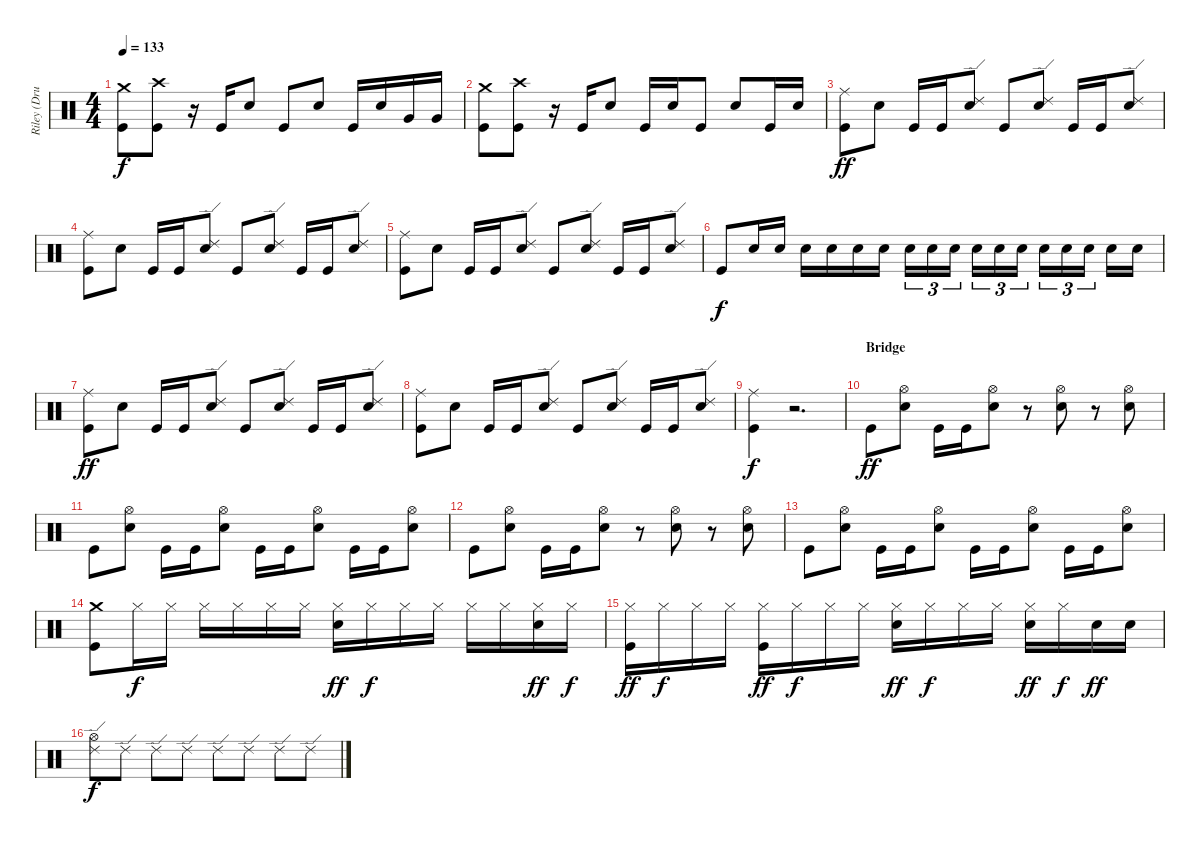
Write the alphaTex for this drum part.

\track ("Riley (Drums)" "Riley (Dru") {instrument percussion}
\staff {score}
\articulation defaults
\ts (4 4)
\tempo 133
\clef neutral
\ks c
("Crash medium (hit)" "Kick (hit)").8{dy f} ("Crash high (hit)" "Kick (hit)").8 r.16 "Kick (hit)".16 "Electric Snare (hit)".8 "Kick (hit)".8 "Electric Snare (hit)".8 "Kick (hit)".16 "Electric Snare (hit)".16 "Very Low Tom (hit)".16 "Very Low Tom (hit)".16 |
("Crash medium (hit)" "Kick (hit)").8 ("Crash high (hit)" "Kick (hit)").8 r.16 "Kick (hit)".16 "Electric Snare (hit)".8 "Kick (hit)".16 "Electric Snare (hit)".16 "Kick (hit)".8 "Electric Snare (hit)".8 "Kick (hit)".16 "Electric Snare (hit)".16 |
("Ride (middle)" "Kick (hit)").8{dy ff} "Electric Snare (hit)".8 "Kick (hit)".16 "Kick (hit)".16 ("Ride (edge) 2" "Electric Snare (hit)").8 "Kick (hit)".8 ("Ride (edge) 2" "Electric Snare (hit)").8 "Kick (hit)".16 "Kick (hit)".16 ("Ride (edge) 2" "Electric Snare (hit)").8 |
("Ride (middle)" "Kick (hit)").8 "Electric Snare (hit)".8 "Kick (hit)".16 "Kick (hit)".16 ("Ride (edge) 2" "Electric Snare (hit)").8 "Kick (hit)".8 ("Ride (edge) 2" "Electric Snare (hit)").8 "Kick (hit)".16 "Kick (hit)".16 ("Ride (edge) 2" "Electric Snare (hit)").8 |
("Ride (middle)" "Kick (hit)").8 "Electric Snare (hit)".8 "Kick (hit)".16 "Kick (hit)".16 ("Ride (edge) 2" "Electric Snare (hit)").8 "Kick (hit)".8 ("Ride (edge) 2" "Electric Snare (hit)").8 "Kick (hit)".16 "Kick (hit)".16 ("Ride (edge) 2" "Electric Snare (hit)").8 |
"Kick (hit)".8{dy f} "Electric Snare (hit)".16 "Electric Snare (hit)".16 "Electric Snare (hit)".16 "Electric Snare (hit)".16 "Electric Snare (hit)".16 "Electric Snare (hit)".16 "Electric Snare (hit)".16{tu (3 2)} "Electric Snare (hit)".16{tu (3 2)} "Electric Snare (hit)".16{tu (3 2)} "Electric Snare (hit)".16{tu (3 2)} "Electric Snare (hit)".16{tu (3 2)} "Electric Snare (hit)".16{tu (3 2)} "Electric Snare (hit)".16{tu (3 2)} "Electric Snare (hit)".16{tu (3 2)} "Electric Snare (hit)".16{tu (3 2)} "Electric Snare (hit)".16 "Electric Snare (hit)".16 |
("Ride (middle)" "Kick (hit)").8{dy ff} "Electric Snare (hit)".8 "Kick (hit)".16 "Kick (hit)".16 ("Ride (edge) 2" "Electric Snare (hit)").8 "Kick (hit)".8 ("Ride (edge) 2" "Electric Snare (hit)").8 "Kick (hit)".16 "Kick (hit)".16 ("Ride (edge) 2" "Electric Snare (hit)").8 |
("Ride (middle)" "Kick (hit)").8 "Electric Snare (hit)".8 "Kick (hit)".16 "Kick (hit)".16 ("Ride (edge) 2" "Electric Snare (hit)").8 "Kick (hit)".8 ("Ride (edge) 2" "Electric Snare (hit)").8 "Kick (hit)".16 "Kick (hit)".16 ("Ride (edge) 2" "Electric Snare (hit)").8 |
("Ride (middle)" "Kick (hit)").4{dy f} r.2{d} |
\section ("" "Bridge")
"Kick (hit)".8{dy ff} ("Hi-Hat (open)" "Electric Snare (hit)").8 "Kick (hit)".16 "Kick (hit)".16 ("Hi-Hat (open)" "Electric Snare (hit)").8 r.8 ("Hi-Hat (open)" "Electric Snare (hit)").8 r.8 ("Hi-Hat (open)" "Electric Snare (hit)").8 |
"Kick (hit)".8 ("Hi-Hat (open)" "Electric Snare (hit)").8 "Kick (hit)".16 "Kick (hit)".16 ("Hi-Hat (open)" "Electric Snare (hit)").8 "Kick (hit)".16 "Kick (hit)".16 ("Hi-Hat (open)" "Electric Snare (hit)").8 "Kick (hit)".16 "Kick (hit)".16 ("Hi-Hat (open)" "Electric Snare (hit)").8 |
"Kick (hit)".8 ("Hi-Hat (open)" "Electric Snare (hit)").8 "Kick (hit)".16 "Kick (hit)".16 ("Hi-Hat (open)" "Electric Snare (hit)").8 r.8 ("Hi-Hat (open)" "Electric Snare (hit)").8 r.8 ("Hi-Hat (open)" "Electric Snare (hit)").8 |
"Kick (hit)".8 ("Hi-Hat (open)" "Electric Snare (hit)").8 "Kick (hit)".16 "Kick (hit)".16 ("Hi-Hat (open)" "Electric Snare (hit)").8 "Kick (hit)".16 "Kick (hit)".16 ("Hi-Hat (open)" "Electric Snare (hit)").8 "Kick (hit)".16 "Kick (hit)".16 ("Hi-Hat (open)" "Electric Snare (hit)").8 |
("Crash medium (hit)" "Kick (hit)").8 "Hi-Hat (closed)".16{dy f} "Hi-Hat (closed)".16 "Hi-Hat (closed)".16 "Hi-Hat (closed)".16 "Hi-Hat (closed)".16 "Hi-Hat (closed)".16 ("Hi-Hat (closed)" "Electric Snare (hit)").16{dy ff} "Hi-Hat (closed)".16{dy f} "Hi-Hat (closed)".16 "Hi-Hat (closed)".16 "Hi-Hat (closed)".16 "Hi-Hat (closed)".16 ("Hi-Hat (closed)" "Electric Snare (hit)").16{dy ff} "Hi-Hat (closed)".16{dy f} |
("Hi-Hat (closed)" "Kick (hit)").16{dy ff} "Hi-Hat (closed)".16{dy f} "Hi-Hat (closed)".16 "Hi-Hat (closed)".16 ("Hi-Hat (closed)" "Kick (hit)").16{dy ff} "Hi-Hat (closed)".16{dy f} "Hi-Hat (closed)".16 "Hi-Hat (closed)".16 ("Hi-Hat (closed)" "Electric Snare (hit)").16{dy ff} "Hi-Hat (closed)".16{dy f} "Hi-Hat (closed)".16 "Hi-Hat (closed)".16 ("Hi-Hat (closed)" "Electric Snare (hit)").16{dy ff} "Hi-Hat (closed)".16{dy f} "Electric Snare (hit)".16{dy ff} "Electric Snare (hit)".16 |
("Hi-Hat (open)" "Ride (edge) 2").8{dy f} "Ride (edge) 2".8 "Ride (edge) 2".8 "Ride (edge) 2".8 "Ride (edge) 2".8 "Ride (edge) 2".8 "Ride (edge) 2".8 "Ride (edge) 2".8
